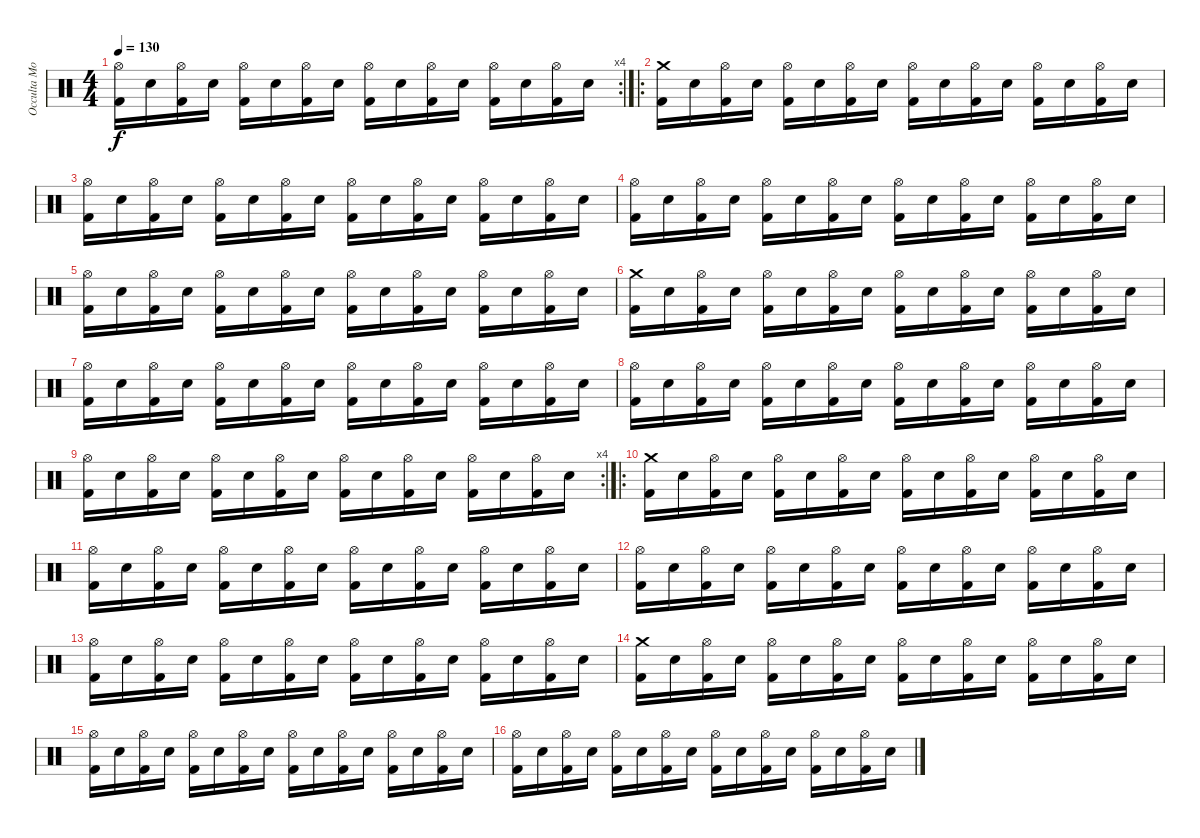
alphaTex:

\track ("Occulta Mors" "Occulta Mo") {instrument percussion}
\staff {score}
\articulation defaults
\rc 4
\ts (4 4)
\tempo 130
\clef neutral
\ks c
("Hi-Hat (open)" "Kick (hit) 2").16{dy f} "Snare (hit) 2".16 ("Hi-Hat (open)" "Kick (hit) 2").16 "Snare (hit) 2".16 ("Hi-Hat (open)" "Kick (hit) 2").16 "Snare (hit) 2".16 ("Hi-Hat (open)" "Kick (hit) 2").16 "Snare (hit) 2".16 ("Hi-Hat (open)" "Kick (hit) 2").16 "Snare (hit) 2".16 ("Hi-Hat (open)" "Kick (hit) 2").16 "Snare (hit) 2".16 ("Hi-Hat (open)" "Kick (hit) 2").16 "Snare (hit) 2".16 ("Hi-Hat (open)" "Kick (hit) 2").16 "Snare (hit) 2".16 |
\ro
("Crash medium (hit)" "Kick (hit) 2").16 "Snare (hit) 2".16 ("Hi-Hat (open)" "Kick (hit) 2").16 "Snare (hit) 2".16 ("Hi-Hat (open)" "Kick (hit) 2").16 "Snare (hit) 2".16 ("Hi-Hat (open)" "Kick (hit) 2").16 "Snare (hit) 2".16 ("Hi-Hat (open)" "Kick (hit) 2").16 "Snare (hit) 2".16 ("Hi-Hat (open)" "Kick (hit) 2").16 "Snare (hit) 2".16 ("Hi-Hat (open)" "Kick (hit) 2").16 "Snare (hit) 2".16 ("Hi-Hat (open)" "Kick (hit) 2").16 "Snare (hit) 2".16 |
("Hi-Hat (open)" "Kick (hit) 2").16 "Snare (hit) 2".16 ("Hi-Hat (open)" "Kick (hit) 2").16 "Snare (hit) 2".16 ("Hi-Hat (open)" "Kick (hit) 2").16 "Snare (hit) 2".16 ("Hi-Hat (open)" "Kick (hit) 2").16 "Snare (hit) 2".16 ("Hi-Hat (open)" "Kick (hit) 2").16 "Snare (hit) 2".16 ("Hi-Hat (open)" "Kick (hit) 2").16 "Snare (hit) 2".16 ("Hi-Hat (open)" "Kick (hit) 2").16 "Snare (hit) 2".16 ("Hi-Hat (open)" "Kick (hit) 2").16 "Snare (hit) 2".16 |
("Hi-Hat (open)" "Kick (hit) 2").16 "Snare (hit) 2".16 ("Hi-Hat (open)" "Kick (hit) 2").16 "Snare (hit) 2".16 ("Hi-Hat (open)" "Kick (hit) 2").16 "Snare (hit) 2".16 ("Hi-Hat (open)" "Kick (hit) 2").16 "Snare (hit) 2".16 ("Hi-Hat (open)" "Kick (hit) 2").16 "Snare (hit) 2".16 ("Hi-Hat (open)" "Kick (hit) 2").16 "Snare (hit) 2".16 ("Hi-Hat (open)" "Kick (hit) 2").16 "Snare (hit) 2".16 ("Hi-Hat (open)" "Kick (hit) 2").16 "Snare (hit) 2".16 |
("Hi-Hat (open)" "Kick (hit) 2").16 "Snare (hit) 2".16 ("Hi-Hat (open)" "Kick (hit) 2").16 "Snare (hit) 2".16 ("Hi-Hat (open)" "Kick (hit) 2").16 "Snare (hit) 2".16 ("Hi-Hat (open)" "Kick (hit) 2").16 "Snare (hit) 2".16 ("Hi-Hat (open)" "Kick (hit) 2").16 "Snare (hit) 2".16 ("Hi-Hat (open)" "Kick (hit) 2").16 "Snare (hit) 2".16 ("Hi-Hat (open)" "Kick (hit) 2").16 "Snare (hit) 2".16 ("Hi-Hat (open)" "Kick (hit) 2").16 "Snare (hit) 2".16 |
("Crash medium (hit)" "Kick (hit) 2").16 "Snare (hit) 2".16 ("Hi-Hat (open)" "Kick (hit) 2").16 "Snare (hit) 2".16 ("Hi-Hat (open)" "Kick (hit) 2").16 "Snare (hit) 2".16 ("Hi-Hat (open)" "Kick (hit) 2").16 "Snare (hit) 2".16 ("Hi-Hat (open)" "Kick (hit) 2").16 "Snare (hit) 2".16 ("Hi-Hat (open)" "Kick (hit) 2").16 "Snare (hit) 2".16 ("Hi-Hat (open)" "Kick (hit) 2").16 "Snare (hit) 2".16 ("Hi-Hat (open)" "Kick (hit) 2").16 "Snare (hit) 2".16 |
("Hi-Hat (open)" "Kick (hit) 2").16 "Snare (hit) 2".16 ("Hi-Hat (open)" "Kick (hit) 2").16 "Snare (hit) 2".16 ("Hi-Hat (open)" "Kick (hit) 2").16 "Snare (hit) 2".16 ("Hi-Hat (open)" "Kick (hit) 2").16 "Snare (hit) 2".16 ("Hi-Hat (open)" "Kick (hit) 2").16 "Snare (hit) 2".16 ("Hi-Hat (open)" "Kick (hit) 2").16 "Snare (hit) 2".16 ("Hi-Hat (open)" "Kick (hit) 2").16 "Snare (hit) 2".16 ("Hi-Hat (open)" "Kick (hit) 2").16 "Snare (hit) 2".16 |
("Hi-Hat (open)" "Kick (hit) 2").16 "Snare (hit) 2".16 ("Hi-Hat (open)" "Kick (hit) 2").16 "Snare (hit) 2".16 ("Hi-Hat (open)" "Kick (hit) 2").16 "Snare (hit) 2".16 ("Hi-Hat (open)" "Kick (hit) 2").16 "Snare (hit) 2".16 ("Hi-Hat (open)" "Kick (hit) 2").16 "Snare (hit) 2".16 ("Hi-Hat (open)" "Kick (hit) 2").16 "Snare (hit) 2".16 ("Hi-Hat (open)" "Kick (hit) 2").16 "Snare (hit) 2".16 ("Hi-Hat (open)" "Kick (hit) 2").16 "Snare (hit) 2".16 |
\rc 4
("Hi-Hat (open)" "Kick (hit) 2").16 "Snare (hit) 2".16 ("Hi-Hat (open)" "Kick (hit) 2").16 "Snare (hit) 2".16 ("Hi-Hat (open)" "Kick (hit) 2").16 "Snare (hit) 2".16 ("Hi-Hat (open)" "Kick (hit) 2").16 "Snare (hit) 2".16 ("Hi-Hat (open)" "Kick (hit) 2").16 "Snare (hit) 2".16 ("Hi-Hat (open)" "Kick (hit) 2").16 "Snare (hit) 2".16 ("Hi-Hat (open)" "Kick (hit) 2").16 "Snare (hit) 2".16 ("Hi-Hat (open)" "Kick (hit) 2").16 "Snare (hit) 2".16 |
\ro
("Crash medium (hit)" "Kick (hit) 2").16 "Snare (hit) 2".16 ("Hi-Hat (open)" "Kick (hit) 2").16 "Snare (hit) 2".16 ("Hi-Hat (open)" "Kick (hit) 2").16 "Snare (hit) 2".16 ("Hi-Hat (open)" "Kick (hit) 2").16 "Snare (hit) 2".16 ("Hi-Hat (open)" "Kick (hit) 2").16 "Snare (hit) 2".16 ("Hi-Hat (open)" "Kick (hit) 2").16 "Snare (hit) 2".16 ("Hi-Hat (open)" "Kick (hit) 2").16 "Snare (hit) 2".16 ("Hi-Hat (open)" "Kick (hit) 2").16 "Snare (hit) 2".16 |
("Hi-Hat (open)" "Kick (hit) 2").16 "Snare (hit) 2".16 ("Hi-Hat (open)" "Kick (hit) 2").16 "Snare (hit) 2".16 ("Hi-Hat (open)" "Kick (hit) 2").16 "Snare (hit) 2".16 ("Hi-Hat (open)" "Kick (hit) 2").16 "Snare (hit) 2".16 ("Hi-Hat (open)" "Kick (hit) 2").16 "Snare (hit) 2".16 ("Hi-Hat (open)" "Kick (hit) 2").16 "Snare (hit) 2".16 ("Hi-Hat (open)" "Kick (hit) 2").16 "Snare (hit) 2".16 ("Hi-Hat (open)" "Kick (hit) 2").16 "Snare (hit) 2".16 |
("Hi-Hat (open)" "Kick (hit) 2").16 "Snare (hit) 2".16 ("Hi-Hat (open)" "Kick (hit) 2").16 "Snare (hit) 2".16 ("Hi-Hat (open)" "Kick (hit) 2").16 "Snare (hit) 2".16 ("Hi-Hat (open)" "Kick (hit) 2").16 "Snare (hit) 2".16 ("Hi-Hat (open)" "Kick (hit) 2").16 "Snare (hit) 2".16 ("Hi-Hat (open)" "Kick (hit) 2").16 "Snare (hit) 2".16 ("Hi-Hat (open)" "Kick (hit) 2").16 "Snare (hit) 2".16 ("Hi-Hat (open)" "Kick (hit) 2").16 "Snare (hit) 2".16 |
("Hi-Hat (open)" "Kick (hit) 2").16 "Snare (hit) 2".16 ("Hi-Hat (open)" "Kick (hit) 2").16 "Snare (hit) 2".16 ("Hi-Hat (open)" "Kick (hit) 2").16 "Snare (hit) 2".16 ("Hi-Hat (open)" "Kick (hit) 2").16 "Snare (hit) 2".16 ("Hi-Hat (open)" "Kick (hit) 2").16 "Snare (hit) 2".16 ("Hi-Hat (open)" "Kick (hit) 2").16 "Snare (hit) 2".16 ("Hi-Hat (open)" "Kick (hit) 2").16 "Snare (hit) 2".16 ("Hi-Hat (open)" "Kick (hit) 2").16 "Snare (hit) 2".16 |
("Crash medium (hit)" "Kick (hit) 2").16 "Snare (hit) 2".16 ("Hi-Hat (open)" "Kick (hit) 2").16 "Snare (hit) 2".16 ("Hi-Hat (open)" "Kick (hit) 2").16 "Snare (hit) 2".16 ("Hi-Hat (open)" "Kick (hit) 2").16 "Snare (hit) 2".16 ("Hi-Hat (open)" "Kick (hit) 2").16 "Snare (hit) 2".16 ("Hi-Hat (open)" "Kick (hit) 2").16 "Snare (hit) 2".16 ("Hi-Hat (open)" "Kick (hit) 2").16 "Snare (hit) 2".16 ("Hi-Hat (open)" "Kick (hit) 2").16 "Snare (hit) 2".16 |
("Hi-Hat (open)" "Kick (hit) 2").16 "Snare (hit) 2".16 ("Hi-Hat (open)" "Kick (hit) 2").16 "Snare (hit) 2".16 ("Hi-Hat (open)" "Kick (hit) 2").16 "Snare (hit) 2".16 ("Hi-Hat (open)" "Kick (hit) 2").16 "Snare (hit) 2".16 ("Hi-Hat (open)" "Kick (hit) 2").16 "Snare (hit) 2".16 ("Hi-Hat (open)" "Kick (hit) 2").16 "Snare (hit) 2".16 ("Hi-Hat (open)" "Kick (hit) 2").16 "Snare (hit) 2".16 ("Hi-Hat (open)" "Kick (hit) 2").16 "Snare (hit) 2".16 |
("Hi-Hat (open)" "Kick (hit) 2").16 "Snare (hit) 2".16 ("Hi-Hat (open)" "Kick (hit) 2").16 "Snare (hit) 2".16 ("Hi-Hat (open)" "Kick (hit) 2").16 "Snare (hit) 2".16 ("Hi-Hat (open)" "Kick (hit) 2").16 "Snare (hit) 2".16 ("Hi-Hat (open)" "Kick (hit) 2").16 "Snare (hit) 2".16 ("Hi-Hat (open)" "Kick (hit) 2").16 "Snare (hit) 2".16 ("Hi-Hat (open)" "Kick (hit) 2").16 "Snare (hit) 2".16 ("Hi-Hat (open)" "Kick (hit) 2").16 "Snare (hit) 2".16
